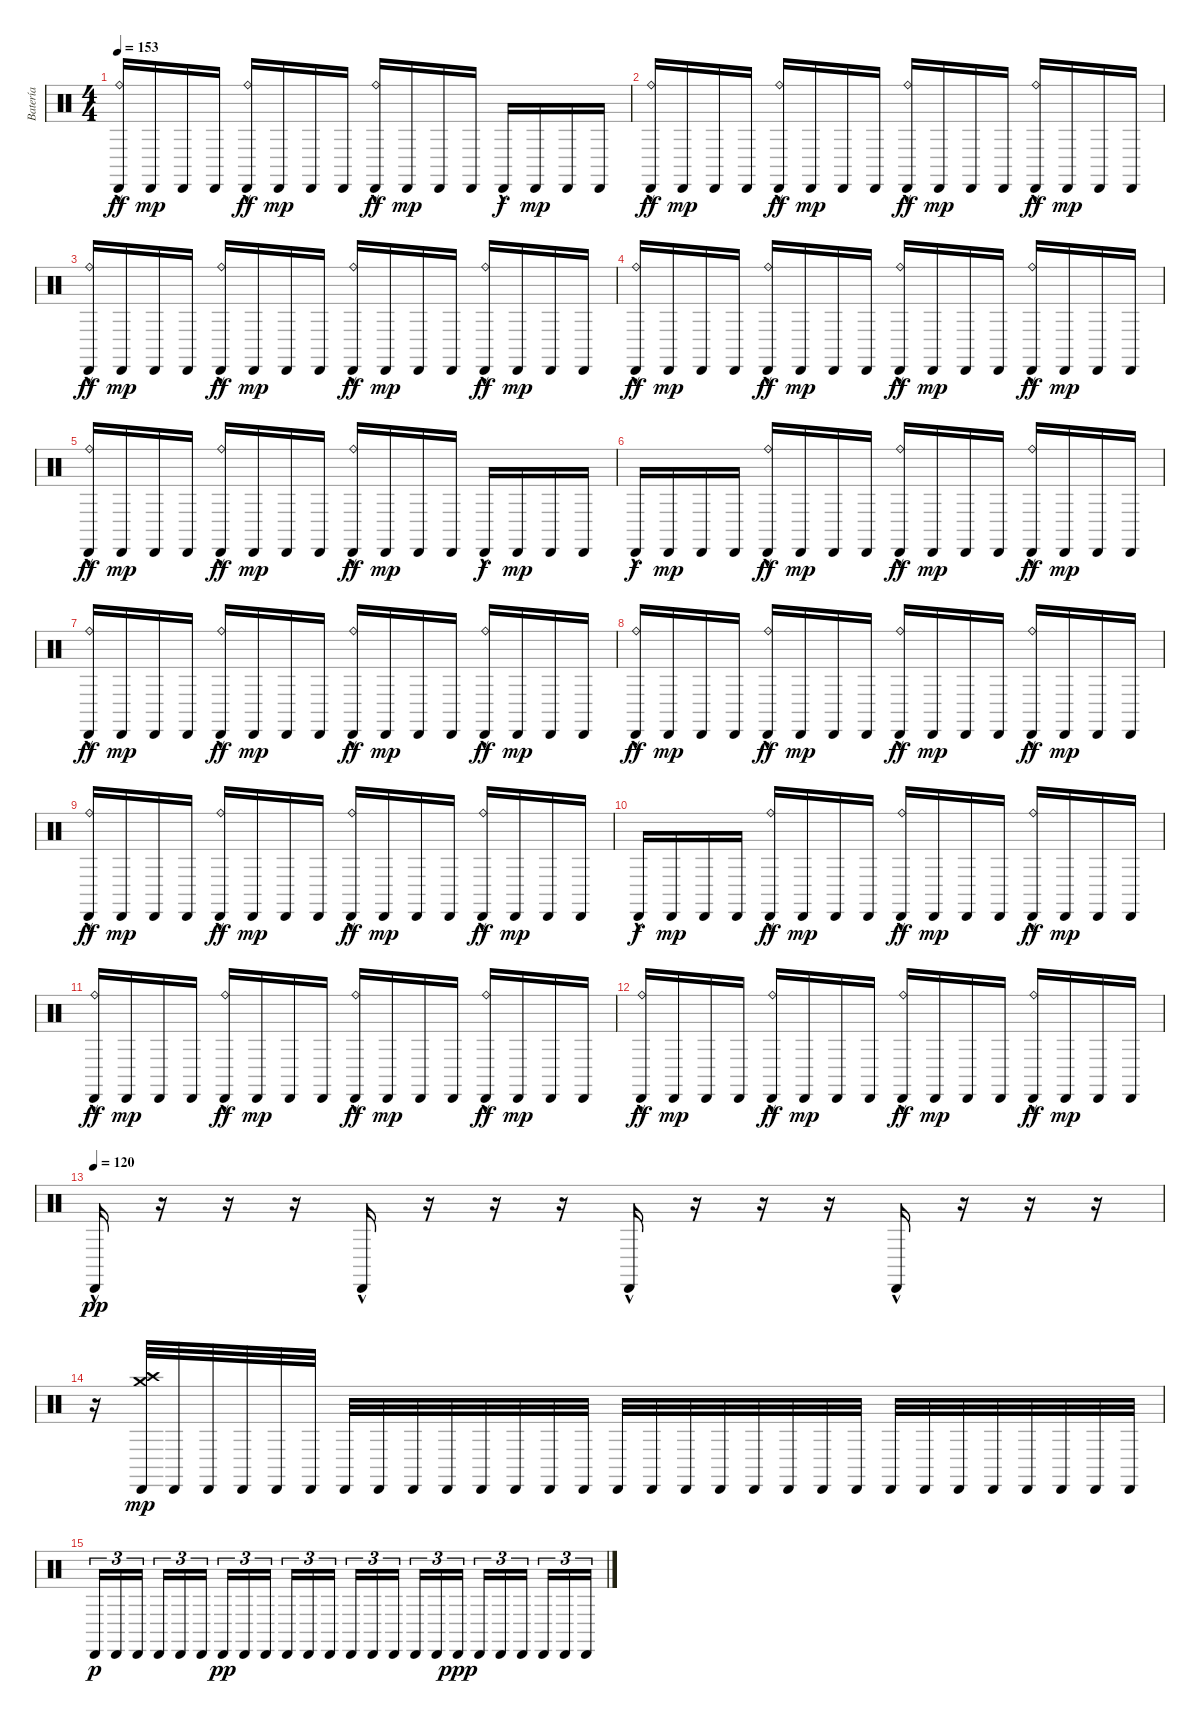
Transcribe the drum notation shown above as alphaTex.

\track ("Batería" "Batería") {instrument percussion}
\staff {score}
\articulation defaults
\ts (4 4)
\tempo 153
\clef neutral
\ks c
("Cabasa (hit)"{hac} "Ride (bell)").16{dy ff} "Cabasa (hit)".16{dy mp} "Cabasa (hit)".16 "Cabasa (hit)".16 ("Cabasa (hit)"{hac} "Ride (bell)").16{dy ff} "Cabasa (hit)".16{dy mp} "Cabasa (hit)".16 "Cabasa (hit)".16 ("Cabasa (hit)"{hac} "Ride (bell)").16{dy ff} "Cabasa (hit)".16{dy mp} "Cabasa (hit)".16 "Cabasa (hit)".16 "Cabasa (hit)"{hac}.16{dy f} "Cabasa (hit)".16{dy mp} "Cabasa (hit)".16 "Cabasa (hit)".16 |
("Cabasa (hit)"{hac} "Ride (bell)").16{dy ff} "Cabasa (hit)".16{dy mp} "Cabasa (hit)".16 "Cabasa (hit)".16 ("Cabasa (hit)"{hac} "Ride (bell)").16{dy ff} "Cabasa (hit)".16{dy mp} "Cabasa (hit)".16 "Cabasa (hit)".16 ("Cabasa (hit)"{hac} "Ride (bell)").16{dy ff} "Cabasa (hit)".16{dy mp} "Cabasa (hit)".16 "Cabasa (hit)".16 ("Cabasa (hit)"{hac} "Ride (bell)").16{dy ff} "Cabasa (hit)".16{dy mp} "Cabasa (hit)".16 "Cabasa (hit)".16 |
("Cabasa (hit)"{hac} "Ride (bell)").16{dy ff} "Cabasa (hit)".16{dy mp} "Cabasa (hit)".16 "Cabasa (hit)".16 ("Cabasa (hit)"{hac} "Ride (bell)").16{dy ff} "Cabasa (hit)".16{dy mp} "Cabasa (hit)".16 "Cabasa (hit)".16 ("Cabasa (hit)"{hac} "Ride (bell)").16{dy ff} "Cabasa (hit)".16{dy mp} "Cabasa (hit)".16 "Cabasa (hit)".16 ("Cabasa (hit)"{hac} "Ride (bell)").16{dy ff} "Cabasa (hit)".16{dy mp} "Cabasa (hit)".16 "Cabasa (hit)".16 |
("Cabasa (hit)"{hac} "Ride (bell)").16{dy ff} "Cabasa (hit)".16{dy mp} "Cabasa (hit)".16 "Cabasa (hit)".16 ("Cabasa (hit)"{hac} "Ride (bell)").16{dy ff} "Cabasa (hit)".16{dy mp} "Cabasa (hit)".16 "Cabasa (hit)".16 ("Cabasa (hit)"{hac} "Ride (bell)").16{dy ff} "Cabasa (hit)".16{dy mp} "Cabasa (hit)".16 "Cabasa (hit)".16 ("Cabasa (hit)"{hac} "Ride (bell)").16{dy ff} "Cabasa (hit)".16{dy mp} "Cabasa (hit)".16 "Cabasa (hit)".16 |
("Cabasa (hit)"{hac} "Ride (bell)").16{dy ff} "Cabasa (hit)".16{dy mp} "Cabasa (hit)".16 "Cabasa (hit)".16 ("Cabasa (hit)"{hac} "Ride (bell)").16{dy ff} "Cabasa (hit)".16{dy mp} "Cabasa (hit)".16 "Cabasa (hit)".16 ("Cabasa (hit)"{hac} "Ride (bell)").16{dy ff} "Cabasa (hit)".16{dy mp} "Cabasa (hit)".16 "Cabasa (hit)".16 "Cabasa (hit)"{hac}.16{dy f} "Cabasa (hit)".16{dy mp} "Cabasa (hit)".16 "Cabasa (hit)".16 |
"Cabasa (hit)"{hac}.16{dy f} "Cabasa (hit)".16{dy mp} "Cabasa (hit)".16 "Cabasa (hit)".16 ("Cabasa (hit)"{hac} "Ride (bell)").16{dy ff} "Cabasa (hit)".16{dy mp} "Cabasa (hit)".16 "Cabasa (hit)".16 ("Cabasa (hit)"{hac} "Ride (bell)").16{dy ff} "Cabasa (hit)".16{dy mp} "Cabasa (hit)".16 "Cabasa (hit)".16 ("Cabasa (hit)"{hac} "Ride (bell)").16{dy ff} "Cabasa (hit)".16{dy mp} "Cabasa (hit)".16 "Cabasa (hit)".16 |
("Cabasa (hit)"{hac} "Ride (bell)").16{dy ff} "Cabasa (hit)".16{dy mp} "Cabasa (hit)".16 "Cabasa (hit)".16 ("Cabasa (hit)"{hac} "Ride (bell)").16{dy ff} "Cabasa (hit)".16{dy mp} "Cabasa (hit)".16 "Cabasa (hit)".16 ("Cabasa (hit)"{hac} "Ride (bell)").16{dy ff} "Cabasa (hit)".16{dy mp} "Cabasa (hit)".16 "Cabasa (hit)".16 ("Cabasa (hit)"{hac} "Ride (bell)").16{dy ff} "Cabasa (hit)".16{dy mp} "Cabasa (hit)".16 "Cabasa (hit)".16 |
("Cabasa (hit)"{hac} "Ride (bell)").16{dy ff} "Cabasa (hit)".16{dy mp} "Cabasa (hit)".16 "Cabasa (hit)".16 ("Cabasa (hit)"{hac} "Ride (bell)").16{dy ff} "Cabasa (hit)".16{dy mp} "Cabasa (hit)".16 "Cabasa (hit)".16 ("Cabasa (hit)"{hac} "Ride (bell)").16{dy ff} "Cabasa (hit)".16{dy mp} "Cabasa (hit)".16 "Cabasa (hit)".16 ("Cabasa (hit)"{hac} "Ride (bell)").16{dy ff} "Cabasa (hit)".16{dy mp} "Cabasa (hit)".16 "Cabasa (hit)".16 |
("Cabasa (hit)"{hac} "Ride (bell)").16{dy ff} "Cabasa (hit)".16{dy mp} "Cabasa (hit)".16 "Cabasa (hit)".16 ("Cabasa (hit)"{hac} "Ride (bell)").16{dy ff} "Cabasa (hit)".16{dy mp} "Cabasa (hit)".16 "Cabasa (hit)".16 ("Cabasa (hit)"{hac} "Ride (bell)").16{dy ff} "Cabasa (hit)".16{dy mp} "Cabasa (hit)".16 "Cabasa (hit)".16 ("Cabasa (hit)"{hac} "Ride (bell)").16{dy ff} "Cabasa (hit)".16{dy mp} "Cabasa (hit)".16 "Cabasa (hit)".16 |
"Cabasa (hit)"{hac}.16{dy f} "Cabasa (hit)".16{dy mp} "Cabasa (hit)".16 "Cabasa (hit)".16 ("Cabasa (hit)"{hac} "Ride (bell)").16{dy ff} "Cabasa (hit)".16{dy mp} "Cabasa (hit)".16 "Cabasa (hit)".16 ("Cabasa (hit)"{hac} "Ride (bell)").16{dy ff} "Cabasa (hit)".16{dy mp} "Cabasa (hit)".16 "Cabasa (hit)".16 ("Cabasa (hit)"{hac} "Ride (bell)").16{dy ff} "Cabasa (hit)".16{dy mp} "Cabasa (hit)".16 "Cabasa (hit)".16 |
("Cabasa (hit)"{hac} "Ride (bell)").16{dy ff} "Cabasa (hit)".16{dy mp} "Cabasa (hit)".16 "Cabasa (hit)".16 ("Cabasa (hit)"{hac} "Ride (bell)").16{dy ff} "Cabasa (hit)".16{dy mp} "Cabasa (hit)".16 "Cabasa (hit)".16 ("Cabasa (hit)"{hac} "Ride (bell)").16{dy ff} "Cabasa (hit)".16{dy mp} "Cabasa (hit)".16 "Cabasa (hit)".16 ("Cabasa (hit)"{hac} "Ride (bell)").16{dy ff} "Cabasa (hit)".16{dy mp} "Cabasa (hit)".16 "Cabasa (hit)".16 |
("Cabasa (hit)"{hac} "Ride (bell)").16{dy ff} "Cabasa (hit)".16{dy mp} "Cabasa (hit)".16 "Cabasa (hit)".16 ("Cabasa (hit)"{hac} "Ride (bell)").16{dy ff} "Cabasa (hit)".16{dy mp} "Cabasa (hit)".16 "Cabasa (hit)".16 ("Cabasa (hit)"{hac} "Ride (bell)").16{dy ff} "Cabasa (hit)".16{dy mp} "Cabasa (hit)".16 "Cabasa (hit)".16 ("Cabasa (hit)"{hac} "Ride (bell)").16{dy ff} "Cabasa (hit)".16{dy mp} "Cabasa (hit)".16 "Cabasa (hit)".16 |
\tempo (120)
"Cabasa (hit)"{hac}.16{dy pp} r.16 r.16 r.16 "Cabasa (hit)"{hac}.16 r.16 r.16 r.16 "Cabasa (hit)"{hac}.16 r.16 r.16 r.16 "Cabasa (hit)"{hac}.16 r.16 r.16 r.16 |
r.16 ("Cabasa (hit)" "Crash medium (hit)" "Crash high (hit)").32{dy mp} "Cabasa (hit)".32 "Cabasa (hit)".32 "Cabasa (hit)".32 "Cabasa (hit)".32 "Cabasa (hit)".32 "Cabasa (hit)".32 "Cabasa (hit)".32 "Cabasa (hit)".32 "Cabasa (hit)".32 "Cabasa (hit)".32 "Cabasa (hit)".32 "Cabasa (hit)".32 "Cabasa (hit)".32 "Cabasa (hit)".32 "Cabasa (hit)".32 "Cabasa (hit)".32 "Cabasa (hit)".32 "Cabasa (hit)".32 "Cabasa (hit)".32 "Cabasa (hit)".32 "Cabasa (hit)".32 "Cabasa (hit)".32 "Cabasa (hit)".32 "Cabasa (hit)".32 "Cabasa (hit)".32 "Cabasa (hit)".32 "Cabasa (hit)".32 "Cabasa (hit)".32 "Cabasa (hit)".32 |
"Cabasa (hit)".16{tu (3 2) dy p} "Cabasa (hit)".16{tu (3 2)} "Cabasa (hit)".16{tu (3 2) beam splitsecondary} "Cabasa (hit)".16{tu (3 2)} "Cabasa (hit)".16{tu (3 2)} "Cabasa (hit)".16{tu (3 2)} "Cabasa (hit)".16{tu (3 2) dy pp} "Cabasa (hit)".16{tu (3 2)} "Cabasa (hit)".16{tu (3 2) beam splitsecondary} "Cabasa (hit)".16{tu (3 2)} "Cabasa (hit)".16{tu (3 2)} "Cabasa (hit)".16{tu (3 2)} "Cabasa (hit)".16{tu (3 2)} "Cabasa (hit)".16{tu (3 2)} "Cabasa (hit)".16{tu (3 2) beam splitsecondary} "Cabasa (hit)".16{tu (3 2)} "Cabasa (hit)".16{tu (3 2)} "Cabasa (hit)".16{tu (3 2) dy ppp} "Cabasa (hit)".16{tu (3 2)} "Cabasa (hit)".16{tu (3 2)} "Cabasa (hit)".16{tu (3 2) beam splitsecondary} "Cabasa (hit)".16{tu (3 2)} "Cabasa (hit)".16{tu (3 2)} "Cabasa (hit)".16{tu (3 2)}
